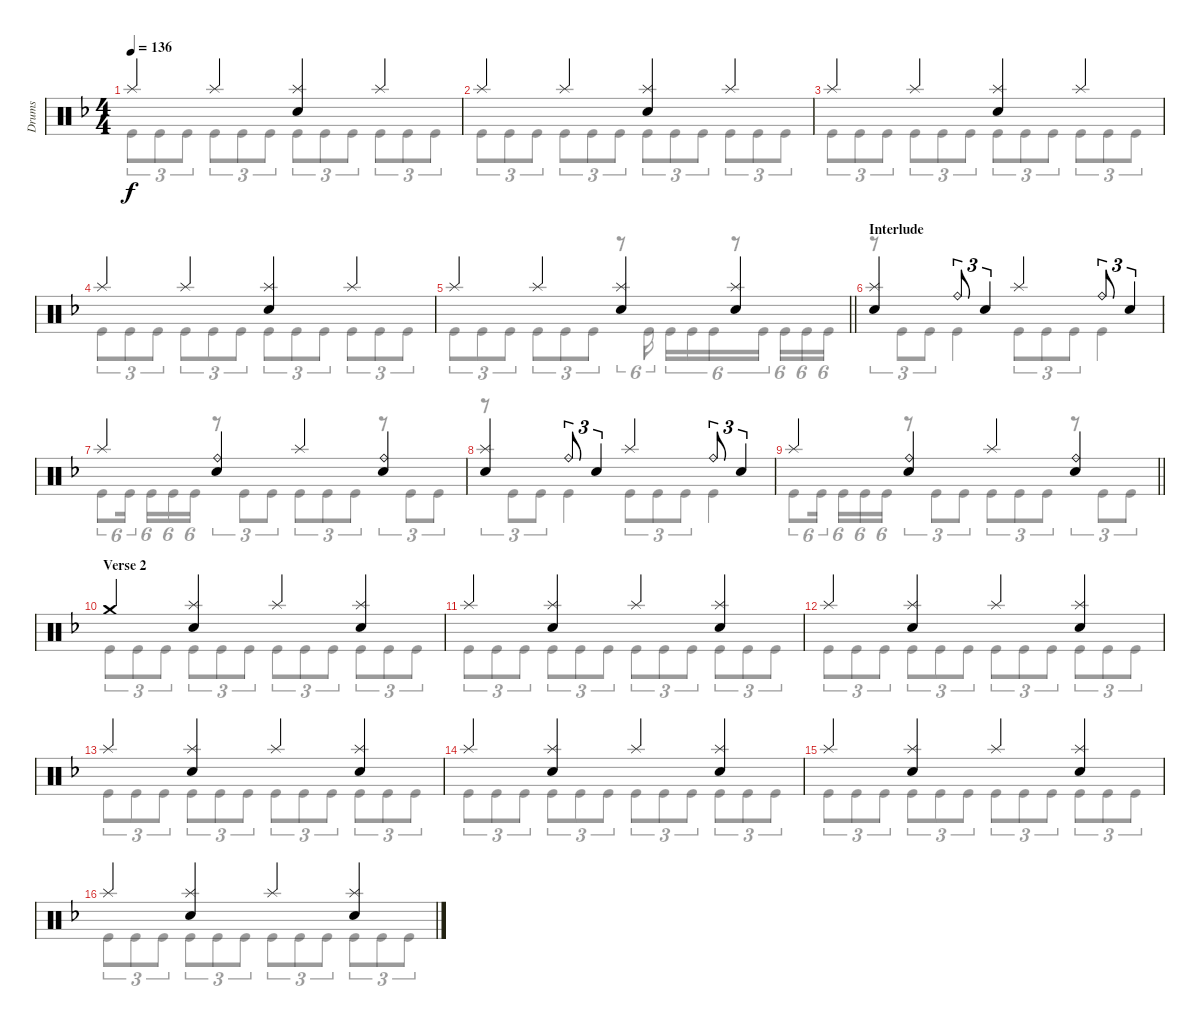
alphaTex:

\track ("Drums" "Drums") {instrument percussion}
\staff {score}
\articulation defaults
\voice
\ts (4 4)
\tempo 136
\clef neutral
\ks dminor "Splash (hit)".4{dy f} "Splash (hit)".4
("Splash (hit)" "Electric Snare (hit)").4 "Splash (hit)".4 |
"Splash (hit)".4 "Splash (hit)".4 ("Splash (hit)" "Electric Snare (hit)").4 "Splash (hit)".4 |
"Splash (hit)".4 "Splash (hit)".4 ("Splash (hit)" "Electric Snare (hit)").4 "Splash (hit)".4 |
"Splash (hit)".4 "Splash (hit)".4 ("Splash (hit)" "Electric Snare (hit)").4 "Splash (hit)".4 |
\barLineRight lightlight "Splash (hit)".4 "Splash (hit)".4
("Splash (hit)" "Electric Snare (hit)").4 ("Splash (hit)" "Electric Snare (hit)").4 |
\section ("" "Interlude")
("Splash (hit)" "Electric Snare (hit)").4 "Ride (bell)".8{tu (3 2)} "Electric Snare (hit)".4{tu (3 2)} "Splash (hit)".4 "Ride (bell)".8{tu (3 2)} "Electric Snare (hit)".4{tu (3 2)} |
"Splash (hit)".4 ("Ride (bell)" "Electric Snare (hit)").4 "Splash (hit)".4 ("Ride (bell)" "Electric Snare (hit)").4 |
("Splash (hit)" "Electric Snare (hit)").4 "Ride (bell)".8{tu (3 2)} "Electric Snare (hit)".4{tu (3 2)} "Splash (hit)".4 "Ride (bell)".8{tu (3 2)} "Electric Snare (hit)".4{tu (3 2)} |
\barLineRight lightlight "Splash (hit)".4
("Ride (bell)" "Electric Snare (hit)").4 "Splash (hit)".4 ("Ride (bell)" "Electric Snare (hit)").4 |
\section ("" "Verse 2")
"Crash medium (hit)".4 ("Splash (hit)" "Electric Snare (hit)").4 "Splash (hit)".4 ("Splash (hit)" "Electric Snare (hit)").4 |
"Splash (hit)".4 ("Splash (hit)" "Electric Snare (hit)").4 "Splash (hit)".4 ("Splash (hit)" "Electric Snare (hit)").4 |
"Splash (hit)".4 ("Splash (hit)" "Electric Snare (hit)").4 "Splash (hit)".4 ("Splash (hit)" "Electric Snare (hit)").4 |
"Splash (hit)".4 ("Splash (hit)" "Electric Snare (hit)").4 "Splash (hit)".4 ("Splash (hit)" "Electric Snare (hit)").4 |
"Splash (hit)".4 ("Splash (hit)" "Electric Snare (hit)").4 "Splash (hit)".4 ("Splash (hit)" "Electric Snare (hit)").4 |
"Splash (hit)".4 ("Splash (hit)" "Electric Snare (hit)").4 "Splash (hit)".4 ("Splash (hit)" "Electric Snare (hit)").4 |
"Splash (hit)".4 ("Splash (hit)" "Electric Snare (hit)").4 "Splash (hit)".4 ("Splash (hit)" "Electric Snare (hit)").4
\voice
\clef neutral
\ottava regular
\simile none
\ks dminor "Kick (hit)".8{tu (3 2) dy f} "Kick (hit)".8{tu (3 2)} "Kick (hit)".8{tu (3 2)} "Kick (hit)".8{tu (3 2)} "Kick (hit)".8{tu (3 2)} "Kick (hit)".8{tu (3 2)} "Kick (hit)".8{tu (3 2)} "Kick (hit)".8{tu (3 2)} "Kick (hit)".8{tu (3 2)} "Kick (hit)".8{tu (3 2)} "Kick (hit)".8{tu (3 2)} "Kick (hit)".8{tu (3 2)}
|
"Kick (hit)".8{tu (3 2)} "Kick (hit)".8{tu (3 2)} "Kick (hit)".8{tu (3 2)} "Kick (hit)".8{tu (3 2)} "Kick (hit)".8{tu (3 2)} "Kick (hit)".8{tu (3 2)} "Kick (hit)".8{tu (3 2)} "Kick (hit)".8{tu (3 2)} "Kick (hit)".8{tu (3 2)} "Kick (hit)".8{tu (3 2)} "Kick (hit)".8{tu (3 2)} "Kick (hit)".8{tu (3 2)} |
"Kick (hit)".8{tu (3 2)} "Kick (hit)".8{tu (3 2)} "Kick (hit)".8{tu (3 2)} "Kick (hit)".8{tu (3 2)} "Kick (hit)".8{tu (3 2)} "Kick (hit)".8{tu (3 2)} "Kick (hit)".8{tu (3 2)} "Kick (hit)".8{tu (3 2)} "Kick (hit)".8{tu (3 2)} "Kick (hit)".8{tu (3 2)} "Kick (hit)".8{tu (3 2)} "Kick (hit)".8{tu (3 2)} |
"Kick (hit)".8{tu (3 2)} "Kick (hit)".8{tu (3 2)} "Kick (hit)".8{tu (3 2)} "Kick (hit)".8{tu (3 2)} "Kick (hit)".8{tu (3 2)} "Kick (hit)".8{tu (3 2)} "Kick (hit)".8{tu (3 2)} "Kick (hit)".8{tu (3 2)} "Kick (hit)".8{tu (3 2)} "Kick (hit)".8{tu (3 2)} "Kick (hit)".8{tu (3 2)} "Kick (hit)".8{tu (3 2)} |
\barLineRight lightlight "Kick (hit)".8{tu (3 2)} "Kick (hit)".8{tu (3 2)} "Kick (hit)".8{tu (3 2)} "Kick (hit)".8{tu (3 2)} "Kick (hit)".8{tu (3 2)} "Kick (hit)".8{tu (3 2)}
r.8{tu (6 4)} "Kick (hit)".16{tu (6 4)} "Kick (hit)".16{tu (6 4)} "Kick (hit)".16{tu (6 4)} "Kick (hit)".16{tu (6 4)} r.8{tu (6 4)} "Kick (hit)".16{tu (6 4)} "Kick (hit)".16{tu (6 4)} "Kick (hit)".16{tu (6 4)} "Kick (hit)".16{tu (6 4)} |
r.8{tu (3 2)} "Kick (hit)".8{tu (3 2)} "Kick (hit)".8{tu (3 2)} "Kick (hit)".4 "Kick (hit)".8{tu (3 2)} "Kick (hit)".8{tu (3 2)} "Kick (hit)".8{tu (3 2)} "Kick (hit)".4 |
"Kick (hit)".8{tu (6 4)} "Kick (hit)".16{tu (6 4)} "Kick (hit)".16{tu (6 4)} "Kick (hit)".16{tu (6 4)} "Kick (hit)".16{tu (6 4)} r.8{tu (3 2)} "Kick (hit)".8{tu (3 2)} "Kick (hit)".8{tu (3 2)} "Kick (hit)".8{tu (3 2)} "Kick (hit)".8{tu (3 2)} "Kick (hit)".8{tu (3 2)} r.8{tu (3 2)} "Kick (hit)".8{tu (3 2)} "Kick (hit)".8{tu (3 2)} |
r.8{tu (3 2)} "Kick (hit)".8{tu (3 2)} "Kick (hit)".8{tu (3 2)} "Kick (hit)".4 "Kick (hit)".8{tu (3 2)} "Kick (hit)".8{tu (3 2)} "Kick (hit)".8{tu (3 2)} "Kick (hit)".4 |
\barLineRight lightlight "Kick (hit)".8{tu (6 4)} "Kick (hit)".16{tu (6 4)} "Kick (hit)".16{tu (6 4)} "Kick (hit)".16{tu (6 4)} "Kick (hit)".16{tu (6 4)}
r.8{tu (3 2)} "Kick (hit)".8{tu (3 2)} "Kick (hit)".8{tu (3 2)} "Kick (hit)".8{tu (3 2)} "Kick (hit)".8{tu (3 2)} "Kick (hit)".8{tu (3 2)} r.8{tu (3 2)} "Kick (hit)".8{tu (3 2)} "Kick (hit)".8{tu (3 2)} |
"Kick (hit)".8{tu (3 2)} "Kick (hit)".8{tu (3 2)} "Kick (hit)".8{tu (3 2)} "Kick (hit)".8{tu (3 2)} "Kick (hit)".8{tu (3 2)} "Kick (hit)".8{tu (3 2)} "Kick (hit)".8{tu (3 2)} "Kick (hit)".8{tu (3 2)} "Kick (hit)".8{tu (3 2)} "Kick (hit)".8{tu (3 2)} "Kick (hit)".8{tu (3 2)} "Kick (hit)".8{tu (3 2)} |
"Kick (hit)".8{tu (3 2)} "Kick (hit)".8{tu (3 2)} "Kick (hit)".8{tu (3 2)} "Kick (hit)".8{tu (3 2)} "Kick (hit)".8{tu (3 2)} "Kick (hit)".8{tu (3 2)} "Kick (hit)".8{tu (3 2)} "Kick (hit)".8{tu (3 2)} "Kick (hit)".8{tu (3 2)} "Kick (hit)".8{tu (3 2)} "Kick (hit)".8{tu (3 2)} "Kick (hit)".8{tu (3 2)} |
"Kick (hit)".8{tu (3 2)} "Kick (hit)".8{tu (3 2)} "Kick (hit)".8{tu (3 2)} "Kick (hit)".8{tu (3 2)} "Kick (hit)".8{tu (3 2)} "Kick (hit)".8{tu (3 2)} "Kick (hit)".8{tu (3 2)} "Kick (hit)".8{tu (3 2)} "Kick (hit)".8{tu (3 2)} "Kick (hit)".8{tu (3 2)} "Kick (hit)".8{tu (3 2)} "Kick (hit)".8{tu (3 2)} |
"Kick (hit)".8{tu (3 2)} "Kick (hit)".8{tu (3 2)} "Kick (hit)".8{tu (3 2)} "Kick (hit)".8{tu (3 2)} "Kick (hit)".8{tu (3 2)} "Kick (hit)".8{tu (3 2)} "Kick (hit)".8{tu (3 2)} "Kick (hit)".8{tu (3 2)} "Kick (hit)".8{tu (3 2)} "Kick (hit)".8{tu (3 2)} "Kick (hit)".8{tu (3 2)} "Kick (hit)".8{tu (3 2)} |
"Kick (hit)".8{tu (3 2)} "Kick (hit)".8{tu (3 2)} "Kick (hit)".8{tu (3 2)} "Kick (hit)".8{tu (3 2)} "Kick (hit)".8{tu (3 2)} "Kick (hit)".8{tu (3 2)} "Kick (hit)".8{tu (3 2)} "Kick (hit)".8{tu (3 2)} "Kick (hit)".8{tu (3 2)} "Kick (hit)".8{tu (3 2)} "Kick (hit)".8{tu (3 2)} "Kick (hit)".8{tu (3 2)} |
"Kick (hit)".8{tu (3 2)} "Kick (hit)".8{tu (3 2)} "Kick (hit)".8{tu (3 2)} "Kick (hit)".8{tu (3 2)} "Kick (hit)".8{tu (3 2)} "Kick (hit)".8{tu (3 2)} "Kick (hit)".8{tu (3 2)} "Kick (hit)".8{tu (3 2)} "Kick (hit)".8{tu (3 2)} "Kick (hit)".8{tu (3 2)} "Kick (hit)".8{tu (3 2)} "Kick (hit)".8{tu (3 2)} |
"Kick (hit)".8{tu (3 2)} "Kick (hit)".8{tu (3 2)} "Kick (hit)".8{tu (3 2)} "Kick (hit)".8{tu (3 2)} "Kick (hit)".8{tu (3 2)} "Kick (hit)".8{tu (3 2)} "Kick (hit)".8{tu (3 2)} "Kick (hit)".8{tu (3 2)} "Kick (hit)".8{tu (3 2)} "Kick (hit)".8{tu (3 2)} "Kick (hit)".8{tu (3 2)} "Kick (hit)".8{tu (3 2)}
